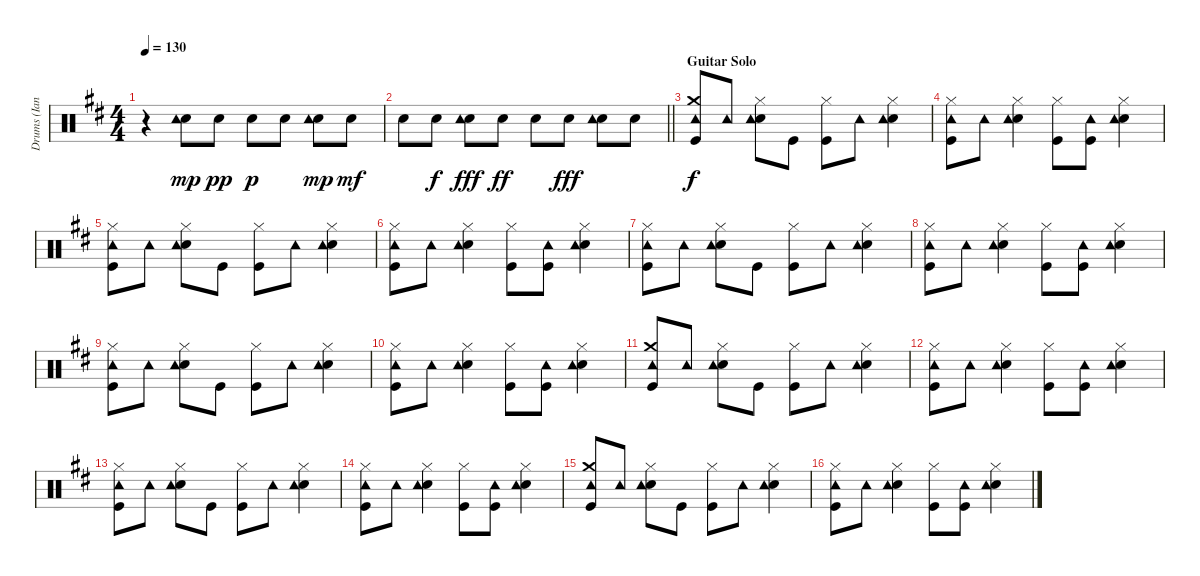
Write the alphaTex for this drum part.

\track ("Drums (Ian Paice)" "Drums (Ian") {instrument percussion}
\staff {score}
\articulation defaults
\ts (4 4)
\tempo 130
\clef neutral
\ks bminor
r.4{dy mp} ("Electric Snare (hit)" "Tambourine (hit)").8 "Electric Snare (hit)".8{dy pp} "Electric Snare (hit)".8{dy p} "Electric Snare (hit)".8 ("Electric Snare (hit)" "Tambourine (hit)").8{dy mp} "Electric Snare (hit)".8{dy mf} |
\barLineRight lightlight "Electric Snare (hit)".8 "Electric Snare (hit)".8{dy f}
("Electric Snare (hit)" "Tambourine (hit)").8{dy fff} "Electric Snare (hit)".8{dy ff} "Electric Snare (hit)".8 "Electric Snare (hit)".8{dy fff} ("Electric Snare (hit)" "Tambourine (hit)").8 "Electric Snare (hit)".8 |
\section ("" "Guitar Solo")
("Crash medium (hit)" "Tambourine (hit)" "Kick (hit)").8{dy f} "Tambourine (hit)".8 ("Hi-Hat (closed)" "Electric Snare (hit)" "Tambourine (hit)").8 "Kick (hit)".8 ("Hi-Hat (closed)" "Kick (hit)").8 "Tambourine (hit)".8 ("Hi-Hat (closed)" "Electric Snare (hit)" "Tambourine (hit)").4 |
("Hi-Hat (closed)" "Tambourine (hit)" "Kick (hit)").8 "Tambourine (hit)".8 ("Hi-Hat (closed)" "Electric Snare (hit)" "Tambourine (hit)").4 ("Hi-Hat (closed)" "Kick (hit)").8 ("Tambourine (hit)" "Kick (hit)").8 ("Hi-Hat (closed)" "Electric Snare (hit)" "Tambourine (hit)").4 |
("Hi-Hat (closed)" "Tambourine (hit)" "Kick (hit)").8 "Tambourine (hit)".8 ("Hi-Hat (closed)" "Electric Snare (hit)" "Tambourine (hit)").8 "Kick (hit)".8 ("Hi-Hat (closed)" "Kick (hit)").8 "Tambourine (hit)".8 ("Hi-Hat (closed)" "Electric Snare (hit)" "Tambourine (hit)").4 |
("Hi-Hat (closed)" "Tambourine (hit)" "Kick (hit)").8 "Tambourine (hit)".8 ("Hi-Hat (closed)" "Electric Snare (hit)" "Tambourine (hit)").4 ("Hi-Hat (closed)" "Kick (hit)").8 ("Tambourine (hit)" "Kick (hit)").8 ("Hi-Hat (closed)" "Electric Snare (hit)" "Tambourine (hit)").4 |
("Hi-Hat (closed)" "Tambourine (hit)" "Kick (hit)").8 "Tambourine (hit)".8 ("Hi-Hat (closed)" "Electric Snare (hit)" "Tambourine (hit)").8 "Kick (hit)".8 ("Hi-Hat (closed)" "Kick (hit)").8 "Tambourine (hit)".8 ("Hi-Hat (closed)" "Electric Snare (hit)" "Tambourine (hit)").4 |
("Hi-Hat (closed)" "Tambourine (hit)" "Kick (hit)").8 "Tambourine (hit)".8 ("Hi-Hat (closed)" "Electric Snare (hit)" "Tambourine (hit)").4 ("Hi-Hat (closed)" "Kick (hit)").8 ("Tambourine (hit)" "Kick (hit)").8 ("Hi-Hat (closed)" "Electric Snare (hit)" "Tambourine (hit)").4 |
("Hi-Hat (closed)" "Tambourine (hit)" "Kick (hit)").8 "Tambourine (hit)".8 ("Hi-Hat (closed)" "Electric Snare (hit)" "Tambourine (hit)").8 "Kick (hit)".8 ("Hi-Hat (closed)" "Kick (hit)").8 "Tambourine (hit)".8 ("Hi-Hat (closed)" "Electric Snare (hit)" "Tambourine (hit)").4 |
("Hi-Hat (closed)" "Tambourine (hit)" "Kick (hit)").8 "Tambourine (hit)".8 ("Hi-Hat (closed)" "Electric Snare (hit)" "Tambourine (hit)").4 ("Hi-Hat (closed)" "Kick (hit)").8 ("Tambourine (hit)" "Kick (hit)").8 ("Hi-Hat (closed)" "Electric Snare (hit)" "Tambourine (hit)").4 |
("Crash medium (hit)" "Tambourine (hit)" "Kick (hit)").8 "Tambourine (hit)".8 ("Hi-Hat (closed)" "Electric Snare (hit)" "Tambourine (hit)").8 "Kick (hit)".8 ("Hi-Hat (closed)" "Kick (hit)").8 "Tambourine (hit)".8 ("Hi-Hat (closed)" "Electric Snare (hit)" "Tambourine (hit)").4 |
("Hi-Hat (closed)" "Tambourine (hit)" "Kick (hit)").8 "Tambourine (hit)".8 ("Hi-Hat (closed)" "Electric Snare (hit)" "Tambourine (hit)").4 ("Hi-Hat (closed)" "Kick (hit)").8 ("Tambourine (hit)" "Kick (hit)").8 ("Hi-Hat (closed)" "Electric Snare (hit)" "Tambourine (hit)").4 |
("Hi-Hat (closed)" "Tambourine (hit)" "Kick (hit)").8 "Tambourine (hit)".8 ("Hi-Hat (closed)" "Electric Snare (hit)" "Tambourine (hit)").8 "Kick (hit)".8 ("Hi-Hat (closed)" "Kick (hit)").8 "Tambourine (hit)".8 ("Hi-Hat (closed)" "Electric Snare (hit)" "Tambourine (hit)").4 |
("Hi-Hat (closed)" "Tambourine (hit)" "Kick (hit)").8 "Tambourine (hit)".8 ("Hi-Hat (closed)" "Electric Snare (hit)" "Tambourine (hit)").4 ("Hi-Hat (closed)" "Kick (hit)").8 ("Tambourine (hit)" "Kick (hit)").8 ("Hi-Hat (closed)" "Electric Snare (hit)" "Tambourine (hit)").4 |
("Crash medium (hit)" "Tambourine (hit)" "Kick (hit)").8 "Tambourine (hit)".8 ("Hi-Hat (closed)" "Electric Snare (hit)" "Tambourine (hit)").8 "Kick (hit)".8 ("Hi-Hat (closed)" "Kick (hit)").8 "Tambourine (hit)".8 ("Hi-Hat (closed)" "Electric Snare (hit)" "Tambourine (hit)").4 |
("Hi-Hat (closed)" "Tambourine (hit)" "Kick (hit)").8 "Tambourine (hit)".8 ("Hi-Hat (closed)" "Electric Snare (hit)" "Tambourine (hit)").4 ("Hi-Hat (closed)" "Kick (hit)").8 ("Tambourine (hit)" "Kick (hit)").8 ("Hi-Hat (closed)" "Electric Snare (hit)" "Tambourine (hit)").4
